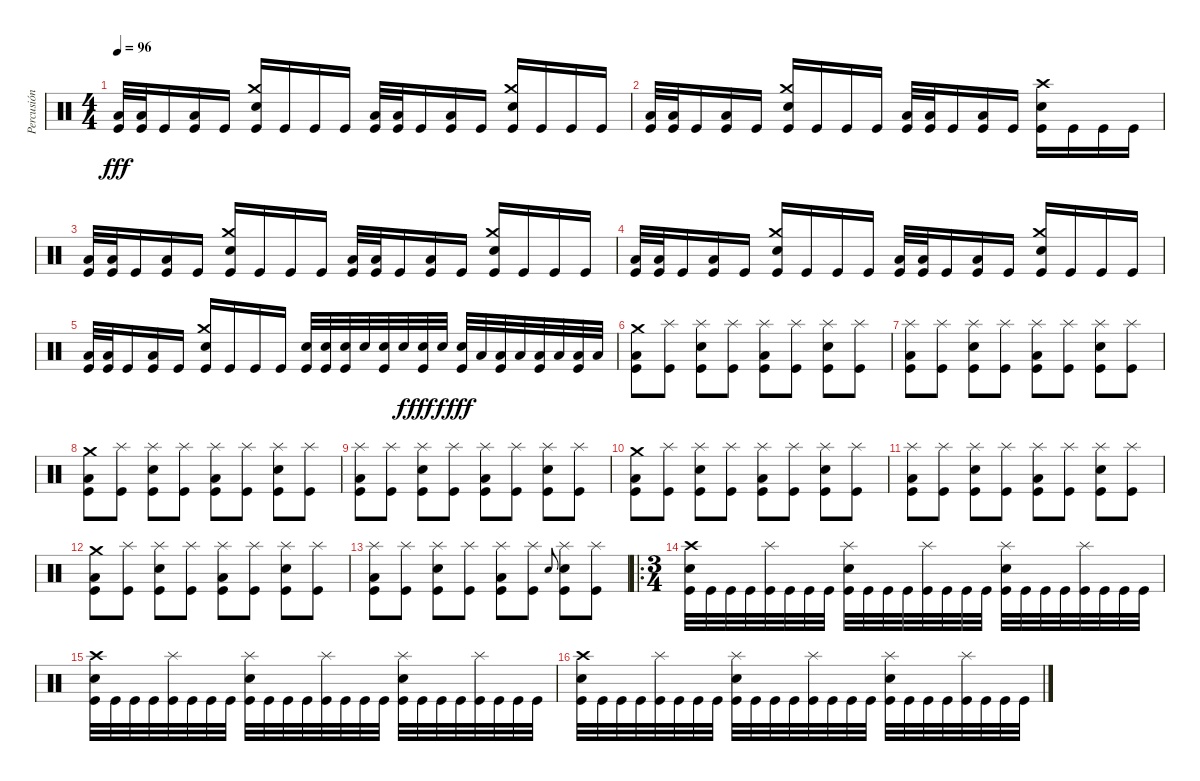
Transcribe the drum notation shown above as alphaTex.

\track ("Percusión" "Percusión") {instrument percussion}
\staff {score}
\articulation defaults
\ts (4 4)
\tempo 96
\clef neutral
\ks c
("Low Floor Tom (hit)" "Kick (hit)").32{dy fff} ("Low Floor Tom (hit)" "Kick (hit)").32 "Kick (hit)".16 ("Low Floor Tom (hit)" "Kick (hit)").16 "Kick (hit)".16 ("Crash medium (hit)" "Snare (hit) 2" "Kick (hit)").16 "Kick (hit)".16 "Kick (hit)".16 "Kick (hit)".16 ("Low Floor Tom (hit)" "Kick (hit)").32 ("Low Floor Tom (hit)" "Kick (hit)").32 "Kick (hit)".16 ("Low Floor Tom (hit)" "Kick (hit)").16 "Kick (hit)".16 ("Crash medium (hit)" "Snare (hit) 2" "Kick (hit)").16 "Kick (hit)".16 "Kick (hit)".16 "Kick (hit)".16 |
("Low Floor Tom (hit)" "Kick (hit)").32 ("Low Floor Tom (hit)" "Kick (hit)").32 "Kick (hit)".16 ("Low Floor Tom (hit)" "Kick (hit)").16 "Kick (hit)".16 ("Crash medium (hit)" "Snare (hit) 2" "Kick (hit)").16 "Kick (hit)".16 "Kick (hit)".16 "Kick (hit)".16 ("Low Floor Tom (hit)" "Kick (hit)").32 ("Low Floor Tom (hit)" "Kick (hit)").32 "Kick (hit)".16 ("Low Floor Tom (hit)" "Kick (hit)").16 "Kick (hit)".16 ("Crash high (hit)" "Snare (hit) 2" "Kick (hit)").16 "Kick (hit)".16 "Kick (hit)".16 "Kick (hit)".16 |
("Low Floor Tom (hit)" "Kick (hit)").32 ("Low Floor Tom (hit)" "Kick (hit)").32 "Kick (hit)".16 ("Low Floor Tom (hit)" "Kick (hit)").16 "Kick (hit)".16 ("Crash medium (hit)" "Snare (hit) 2" "Kick (hit)").16 "Kick (hit)".16 "Kick (hit)".16 "Kick (hit)".16 ("Low Floor Tom (hit)" "Kick (hit)").32 ("Low Floor Tom (hit)" "Kick (hit)").32 "Kick (hit)".16 ("Low Floor Tom (hit)" "Kick (hit)").16 "Kick (hit)".16 ("Crash medium (hit)" "Snare (hit) 2" "Kick (hit)").16 "Kick (hit)".16 "Kick (hit)".16 "Kick (hit)".16 |
("Low Floor Tom (hit)" "Kick (hit)").32 ("Low Floor Tom (hit)" "Kick (hit)").32 "Kick (hit)".16 ("Low Floor Tom (hit)" "Kick (hit)").16 "Kick (hit)".16 ("Crash medium (hit)" "Snare (hit) 2" "Kick (hit)").16 "Kick (hit)".16 "Kick (hit)".16 "Kick (hit)".16 ("Low Floor Tom (hit)" "Kick (hit)").32 ("Low Floor Tom (hit)" "Kick (hit)").32 "Kick (hit)".16 ("Low Floor Tom (hit)" "Kick (hit)").16 "Kick (hit)".16 ("Crash medium (hit)" "Snare (hit) 2" "Kick (hit)").16 "Kick (hit)".16 "Kick (hit)".16 "Kick (hit)".16 |
("Low Floor Tom (hit)" "Kick (hit)").32 ("Low Floor Tom (hit)" "Kick (hit)").32 "Kick (hit)".16 ("Low Floor Tom (hit)" "Kick (hit)").16 "Kick (hit)".16 ("Crash medium (hit)" "Snare (hit) 2" "Kick (hit)").16 "Kick (hit)".16 "Kick (hit)".16 "Kick (hit)".16 ("Snare (hit) 2" "Kick (hit)").32 ("Snare (hit) 2" "Kick (hit)").32 ("Snare (hit) 2" "Kick (hit)").32 "Snare (hit) 2".32 ("Snare (hit) 2" "Kick (hit)").32 "Snare (hit) 2".32{dy f} ("Snare (hit) 2" "Kick (hit)").32{dy fff} "Snare (hit) 2".32{dy f} ("Snare (hit) 2" "Kick (hit)").32{dy fff} "Low Floor Tom (hit)".32 ("Low Floor Tom (hit)" "Kick (hit)").32 "Low Floor Tom (hit)".32 ("Low Floor Tom (hit)" "Kick (hit)").32 "Low Floor Tom (hit)".32 ("Low Floor Tom (hit)" "Kick (hit)").32 "Low Floor Tom (hit)".32 |
("Crash medium (hit)" "Low Floor Tom (hit)" "Kick (hit)").8 ("Splash (hit)" "Kick (hit)").8 ("Splash (hit)" "Snare (hit) 2" "Kick (hit)").8 ("Splash (hit)" "Kick (hit)").8 ("Splash (hit)" "Low Floor Tom (hit)" "Kick (hit)").8 ("Splash (hit)" "Kick (hit)").8 ("Splash (hit)" "Snare (hit) 2" "Kick (hit)").8 ("Splash (hit)" "Kick (hit)").8 |
("Splash (hit)" "Low Floor Tom (hit)" "Kick (hit)").8 ("Splash (hit)" "Kick (hit)").8 ("Splash (hit)" "Snare (hit) 2" "Kick (hit)").8 ("Splash (hit)" "Kick (hit)").8 ("Splash (hit)" "Low Floor Tom (hit)" "Kick (hit)").8 ("Splash (hit)" "Kick (hit)").8 ("Splash (hit)" "Snare (hit) 2" "Kick (hit)").8 ("Splash (hit)" "Kick (hit)").8 |
("Crash medium (hit)" "Low Floor Tom (hit)" "Kick (hit)").8 ("Splash (hit)" "Kick (hit)").8 ("Splash (hit)" "Snare (hit) 2" "Kick (hit)").8 ("Splash (hit)" "Kick (hit)").8 ("Splash (hit)" "Low Floor Tom (hit)" "Kick (hit)").8 ("Splash (hit)" "Kick (hit)").8 ("Splash (hit)" "Snare (hit) 2" "Kick (hit)").8 ("Splash (hit)" "Kick (hit)").8 |
("Splash (hit)" "Low Floor Tom (hit)" "Kick (hit)").8 ("Splash (hit)" "Kick (hit)").8 ("Splash (hit)" "Snare (hit) 2" "Kick (hit)").8 ("Splash (hit)" "Kick (hit)").8 ("Splash (hit)" "Low Floor Tom (hit)" "Kick (hit)").8 ("Splash (hit)" "Kick (hit)").8 ("Splash (hit)" "Snare (hit) 2" "Kick (hit)").8 ("Splash (hit)" "Kick (hit)").8 |
("Crash medium (hit)" "Low Floor Tom (hit)" "Kick (hit)").8 ("Splash (hit)" "Kick (hit)").8 ("Splash (hit)" "Snare (hit) 2" "Kick (hit)").8 ("Splash (hit)" "Kick (hit)").8 ("Splash (hit)" "Low Floor Tom (hit)" "Kick (hit)").8 ("Splash (hit)" "Kick (hit)").8 ("Splash (hit)" "Snare (hit) 2" "Kick (hit)").8 ("Splash (hit)" "Kick (hit)").8 |
("Splash (hit)" "Low Floor Tom (hit)" "Kick (hit)").8 ("Splash (hit)" "Kick (hit)").8 ("Splash (hit)" "Snare (hit) 2" "Kick (hit)").8 ("Splash (hit)" "Kick (hit)").8 ("Splash (hit)" "Low Floor Tom (hit)" "Kick (hit)").8 ("Splash (hit)" "Kick (hit)").8 ("Splash (hit)" "Snare (hit) 2" "Kick (hit)").8 ("Splash (hit)" "Kick (hit)").8 |
("Crash medium (hit)" "Low Floor Tom (hit)" "Kick (hit)").8 ("Splash (hit)" "Kick (hit)").8 ("Splash (hit)" "Snare (hit) 2" "Kick (hit)").8 ("Splash (hit)" "Kick (hit)").8 ("Splash (hit)" "Low Floor Tom (hit)" "Kick (hit)").8 ("Splash (hit)" "Kick (hit)").8 ("Splash (hit)" "Snare (hit) 2" "Kick (hit)").8 ("Splash (hit)" "Kick (hit)").8 |
("Splash (hit)" "Low Floor Tom (hit)" "Kick (hit)").8 ("Splash (hit)" "Kick (hit)").8 ("Splash (hit)" "Snare (hit) 2" "Kick (hit)").8 ("Splash (hit)" "Kick (hit)").8 ("Splash (hit)" "Low Floor Tom (hit)" "Kick (hit)").8 ("Splash (hit)" "Kick (hit)").8 "Snare (hit) 2".8{gr onbeat} ("Splash (hit)" "Snare (hit) 2" "Kick (hit)").8 ("Splash (hit)" "Kick (hit)").8 |
\ro
\ts (3 4)
("Crash high (hit)" "Snare (hit) 2" "Kick (hit)").32 "Kick (hit)".32 "Kick (hit)".32 "Kick (hit)".32 ("Splash (hit)" "Kick (hit)").32 "Kick (hit)".32 "Kick (hit)".32 "Kick (hit)".32 ("Splash (hit)" "Snare (hit) 2" "Kick (hit)").32 "Kick (hit)".32 "Kick (hit)".32 "Kick (hit)".32 ("Splash (hit)" "Kick (hit)").32 "Kick (hit)".32 "Kick (hit)".32 "Kick (hit)".32 ("Splash (hit)" "Snare (hit) 2" "Kick (hit)").32 "Kick (hit)".32 "Kick (hit)".32 "Kick (hit)".32 ("Splash (hit)" "Kick (hit)").32 "Kick (hit)".32 "Kick (hit)".32 "Kick (hit)".32 |
("Crash high (hit)" "Snare (hit) 2" "Kick (hit)").32 "Kick (hit)".32 "Kick (hit)".32 "Kick (hit)".32 ("Splash (hit)" "Kick (hit)").32 "Kick (hit)".32 "Kick (hit)".32 "Kick (hit)".32 ("Splash (hit)" "Snare (hit) 2" "Kick (hit)").32 "Kick (hit)".32 "Kick (hit)".32 "Kick (hit)".32 ("Splash (hit)" "Kick (hit)").32 "Kick (hit)".32 "Kick (hit)".32 "Kick (hit)".32 ("Splash (hit)" "Snare (hit) 2" "Kick (hit)").32 "Kick (hit)".32 "Kick (hit)".32 "Kick (hit)".32 ("Splash (hit)" "Kick (hit)").32 "Kick (hit)".32 "Kick (hit)".32 "Kick (hit)".32 |
("Crash high (hit)" "Snare (hit) 2" "Kick (hit)").32 "Kick (hit)".32 "Kick (hit)".32 "Kick (hit)".32 ("Splash (hit)" "Kick (hit)").32 "Kick (hit)".32 "Kick (hit)".32 "Kick (hit)".32 ("Splash (hit)" "Snare (hit) 2" "Kick (hit)").32 "Kick (hit)".32 "Kick (hit)".32 "Kick (hit)".32 ("Splash (hit)" "Kick (hit)").32 "Kick (hit)".32 "Kick (hit)".32 "Kick (hit)".32 ("Splash (hit)" "Snare (hit) 2" "Kick (hit)").32 "Kick (hit)".32 "Kick (hit)".32 "Kick (hit)".32 ("Splash (hit)" "Kick (hit)").32 "Kick (hit)".32 "Kick (hit)".32 "Kick (hit)".32
